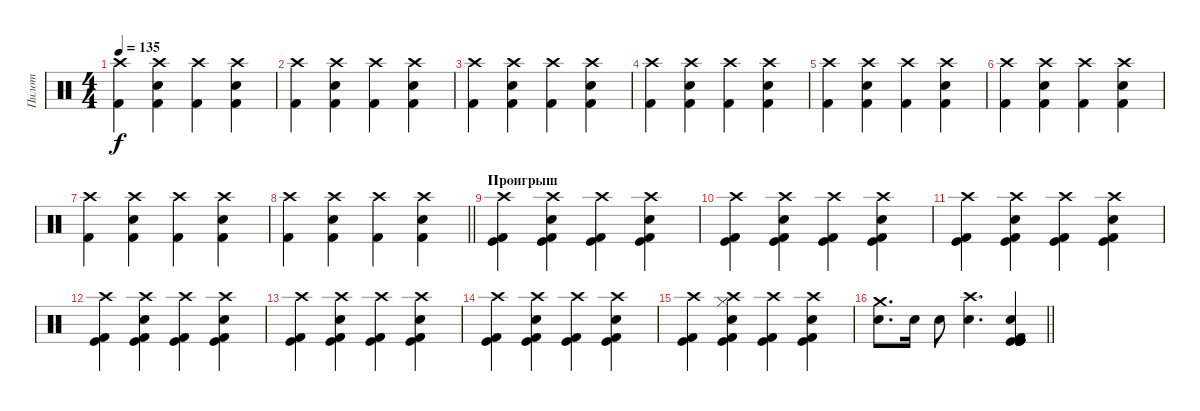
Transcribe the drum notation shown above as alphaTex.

\track ("Пилот" "Пилот") {instrument percussion}
\staff {score}
\articulation defaults
\ts (4 4)
\tempo 135
\clef neutral
\ks c
("Crash high (hit)" "Kick (hit) 2").4{dy f} ("Crash high (hit)" "Kick (hit) 2" "Snare (hit) 2").4 ("Crash high (hit)" "Kick (hit) 2").4 ("Crash high (hit)" "Kick (hit) 2" "Snare (hit) 2").4 |
("Crash high (hit)" "Kick (hit) 2").4 ("Crash high (hit)" "Kick (hit) 2" "Snare (hit) 2").4 ("Crash high (hit)" "Kick (hit) 2").4 ("Crash high (hit)" "Kick (hit) 2" "Snare (hit) 2").4 |
("Crash high (hit)" "Kick (hit) 2").4 ("Crash high (hit)" "Kick (hit) 2" "Snare (hit) 2").4 ("Crash high (hit)" "Kick (hit) 2").4 ("Crash high (hit)" "Kick (hit) 2" "Snare (hit) 2").4 |
("Crash high (hit)" "Kick (hit) 2").4 ("Crash high (hit)" "Kick (hit) 2" "Snare (hit) 2").4 ("Crash high (hit)" "Kick (hit) 2").4 ("Crash high (hit)" "Kick (hit) 2" "Snare (hit) 2").4 |
("Crash high (hit)" "Kick (hit) 2").4 ("Crash high (hit)" "Kick (hit) 2" "Snare (hit) 2").4 ("Crash high (hit)" "Kick (hit) 2").4 ("Crash high (hit)" "Kick (hit) 2" "Snare (hit) 2").4 |
("Crash high (hit)" "Kick (hit) 2").4 ("Crash high (hit)" "Kick (hit) 2" "Snare (hit) 2").4 ("Crash high (hit)" "Kick (hit) 2").4 ("Crash high (hit)" "Kick (hit) 2" "Snare (hit) 2").4 |
("Crash high (hit)" "Kick (hit) 2").4 ("Crash high (hit)" "Kick (hit) 2" "Snare (hit) 2").4 ("Crash high (hit)" "Kick (hit) 2").4 ("Crash high (hit)" "Kick (hit) 2" "Snare (hit) 2").4 |
\barLineRight lightlight
("Crash high (hit)" "Kick (hit) 2").4 ("Crash high (hit)" "Kick (hit) 2" "Snare (hit) 2").4 ("Crash high (hit)" "Kick (hit) 2").4 ("Crash high (hit)" "Kick (hit) 2" "Snare (hit) 2").4 |
\section ("" "Проигрыш")
("Kick (hit) 2" "Crash high (hit)" "Kick (hit)").4 ("Kick (hit) 2" "Snare (hit) 2" "Crash high (hit)" "Kick (hit)").4 ("Kick (hit) 2" "Crash high (hit)" "Kick (hit)").4 ("Kick (hit) 2" "Snare (hit) 2" "Crash high (hit)" "Kick (hit)").4 |
("Kick (hit) 2" "Crash high (hit)" "Kick (hit)").4 ("Kick (hit) 2" "Snare (hit) 2" "Crash high (hit)" "Kick (hit)").4 ("Kick (hit) 2" "Crash high (hit)" "Kick (hit)").4 ("Kick (hit) 2" "Snare (hit) 2" "Crash high (hit)" "Kick (hit)").4 |
("Kick (hit) 2" "Crash high (hit)" "Kick (hit)").4 ("Kick (hit) 2" "Snare (hit) 2" "Crash high (hit)" "Kick (hit)").4 ("Kick (hit) 2" "Crash high (hit)" "Kick (hit)").4 ("Kick (hit) 2" "Snare (hit) 2" "Crash high (hit)" "Kick (hit)").4 |
("Kick (hit) 2" "Crash high (hit)" "Kick (hit)").4 ("Kick (hit) 2" "Snare (hit) 2" "Crash high (hit)" "Kick (hit)").4 ("Kick (hit) 2" "Crash high (hit)" "Kick (hit)").4 ("Kick (hit) 2" "Snare (hit) 2" "Crash high (hit)" "Kick (hit)").4 |
("Kick (hit) 2" "Crash high (hit)" "Kick (hit)").4 ("Kick (hit) 2" "Snare (hit) 2" "Crash high (hit)" "Kick (hit)").4 ("Kick (hit) 2" "Crash high (hit)" "Kick (hit)").4 ("Kick (hit) 2" "Snare (hit) 2" "Crash high (hit)" "Kick (hit)").4 |
("Kick (hit) 2" "Crash high (hit)" "Kick (hit)").4 ("Kick (hit) 2" "Snare (hit) 2" "Crash high (hit)" "Kick (hit)").4 ("Kick (hit) 2" "Crash high (hit)" "Kick (hit)").4 ("Kick (hit) 2" "Snare (hit) 2" "Crash high (hit)" "Kick (hit)").4 |
("Kick (hit) 2" "Crash high (hit)" "Kick (hit)").4 ("Kick (hit) 2" "Snare (hit) 2" "Hi-Hat (closed)" "Crash high (hit)" "Kick (hit)").4 ("Kick (hit) 2" "Crash high (hit)" "Kick (hit)").4 ("Kick (hit) 2" "Snare (hit) 2" "Crash high (hit)" "Kick (hit)").4 |
\barLineRight lightlight
("Snare (hit) 2" "Crash medium (hit)").8{d} "Snare (hit) 2".16 "Snare (hit) 2".8 ("Crash high (hit)" "Snare (hit) 2").4{d} ("Kick (hit) 2" "Snare (hit) 2" "Kick (hit)" "Kick (hit)" "Kick (hit)" "Kick (hit)").4
